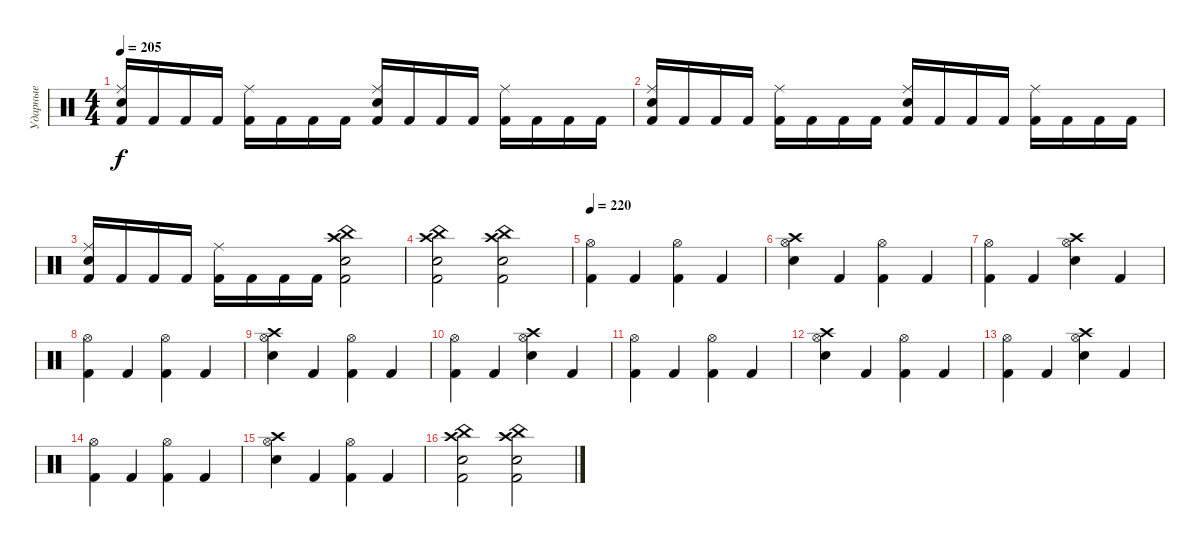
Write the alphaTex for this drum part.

\track ("Ударные" "Ударные") {instrument percussion}
\staff {score}
\articulation defaults
\ts (4 4)
\tempo 205
\clef neutral
\ks c
("Electric Snare (hit)" "Ride (middle)" "Kick (hit) 2").16{dy f} "Kick (hit) 2".16 "Kick (hit) 2".16 "Kick (hit) 2".16 ("Kick (hit) 2" "Ride (middle)").16 "Kick (hit) 2".16 "Kick (hit) 2".16 "Kick (hit) 2".16 ("Electric Snare (hit)" "Ride (middle)" "Kick (hit) 2").16 "Kick (hit) 2".16 "Kick (hit) 2".16 "Kick (hit) 2".16 ("Kick (hit) 2" "Ride (middle)").16 "Kick (hit) 2".16 "Kick (hit) 2".16 "Kick (hit) 2".16 |
("Electric Snare (hit)" "Ride (middle)" "Kick (hit) 2").16 "Kick (hit) 2".16 "Kick (hit) 2".16 "Kick (hit) 2".16 ("Kick (hit) 2" "Ride (middle)").16 "Kick (hit) 2".16 "Kick (hit) 2".16 "Kick (hit) 2".16 ("Electric Snare (hit)" "Ride (middle)" "Kick (hit) 2").16 "Kick (hit) 2".16 "Kick (hit) 2".16 "Kick (hit) 2".16 ("Kick (hit) 2" "Ride (middle)").16 "Kick (hit) 2".16 "Kick (hit) 2".16 "Kick (hit) 2".16 |
("Electric Snare (hit)" "Ride (middle)" "Kick (hit) 2").16 "Kick (hit) 2".16 "Kick (hit) 2".16 "Kick (hit) 2".16 ("Kick (hit) 2" "Ride (middle)").16 "Kick (hit) 2".16 "Kick (hit) 2".16 "Kick (hit) 2".16 ("Kick (hit) 2" "Electric Snare (hit)" "Crash high (hit)" "China (hit)").2 |
("China (hit)" "Crash high (hit)" "Kick (hit) 2" "Electric Snare (hit)").2 ("Electric Snare (hit)" "Kick (hit) 2" "Crash high (hit)" "China (hit)").2 |
\tempo 220
("Kick (hit) 2" "Hi-Hat (open)").4 "Kick (hit) 2".4 ("Kick (hit) 2" "Hi-Hat (open)").4 "Kick (hit) 2".4 |
("Electric Snare (hit)" "Hi-Hat (open)" "Crash high (hit)").4 "Kick (hit) 2".4 ("Kick (hit) 2" "Hi-Hat (open)").4 "Kick (hit) 2".4 |
("Kick (hit) 2" "Hi-Hat (open)").4 "Kick (hit) 2".4 ("Electric Snare (hit)" "Hi-Hat (open)" "Crash high (hit)").4 "Kick (hit) 2".4 |
("Kick (hit) 2" "Hi-Hat (open)").4 "Kick (hit) 2".4 ("Kick (hit) 2" "Hi-Hat (open)").4 "Kick (hit) 2".4 |
("Electric Snare (hit)" "Hi-Hat (open)" "Crash high (hit)").4 "Kick (hit) 2".4 ("Kick (hit) 2" "Hi-Hat (open)").4 "Kick (hit) 2".4 |
("Kick (hit) 2" "Hi-Hat (open)").4 "Kick (hit) 2".4 ("Electric Snare (hit)" "Hi-Hat (open)" "Crash high (hit)").4 "Kick (hit) 2".4 |
("Kick (hit) 2" "Hi-Hat (open)").4 "Kick (hit) 2".4 ("Kick (hit) 2" "Hi-Hat (open)").4 "Kick (hit) 2".4 |
("Electric Snare (hit)" "Hi-Hat (open)" "Crash high (hit)").4 "Kick (hit) 2".4 ("Kick (hit) 2" "Hi-Hat (open)").4 "Kick (hit) 2".4 |
("Kick (hit) 2" "Hi-Hat (open)").4 "Kick (hit) 2".4 ("Electric Snare (hit)" "Hi-Hat (open)" "Crash high (hit)").4 "Kick (hit) 2".4 |
("Kick (hit) 2" "Hi-Hat (open)").4 "Kick (hit) 2".4 ("Kick (hit) 2" "Hi-Hat (open)").4 "Kick (hit) 2".4 |
("Electric Snare (hit)" "Hi-Hat (open)" "Crash high (hit)").4 "Kick (hit) 2".4 ("Kick (hit) 2" "Hi-Hat (open)").4 "Kick (hit) 2".4 |
("Kick (hit) 2" "Electric Snare (hit)" "Crash high (hit)" "China (hit)").2 ("China (hit)" "Crash high (hit)" "Kick (hit) 2" "Electric Snare (hit)").2
